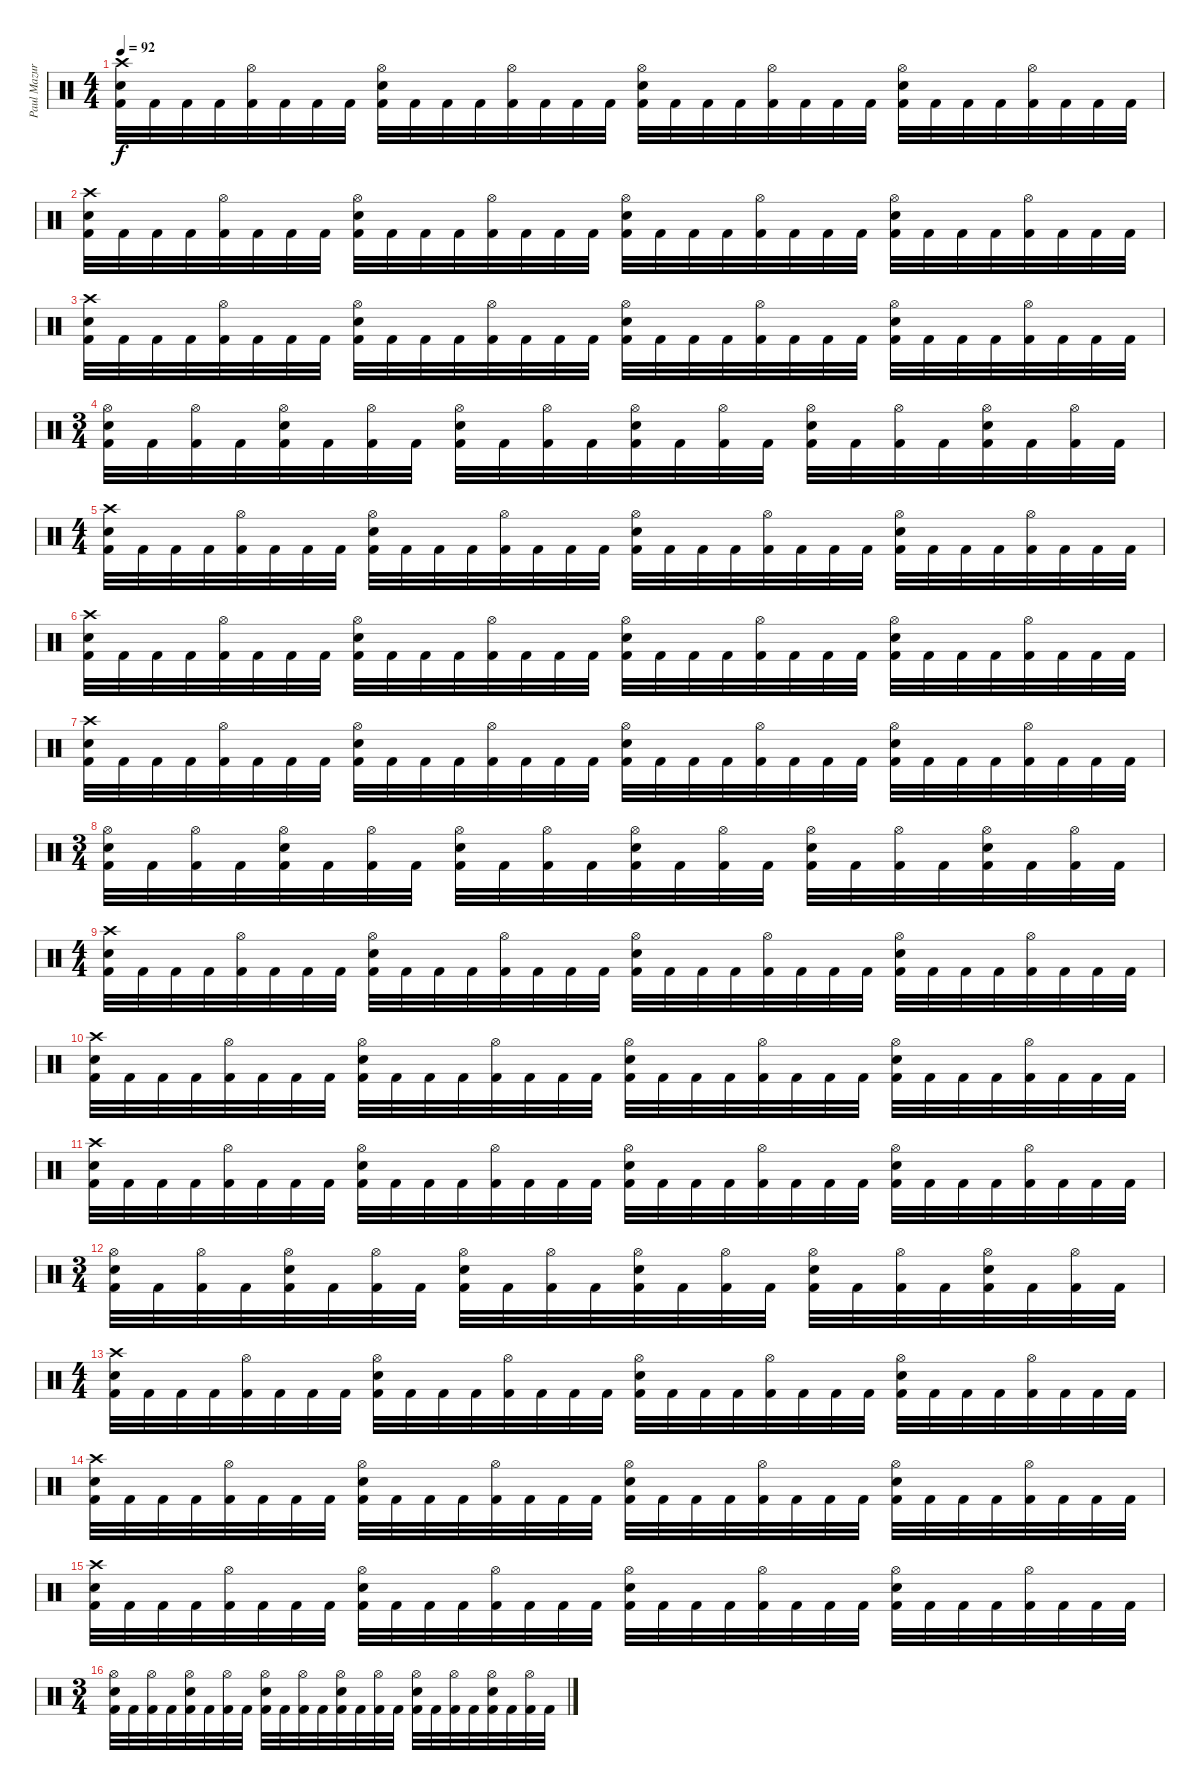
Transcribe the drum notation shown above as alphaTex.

\track ("Paul Mazurkiewicz" "Paul Mazur") {instrument percussion}
\staff {score}
\articulation defaults
\ts (4 4)
\tempo 92
\clef neutral
\ks c
("Crash high (hit)" "Electric Snare (hit)" "Kick (hit) 2").32{dy f} "Kick (hit) 2".32 "Kick (hit) 2".32 "Kick (hit) 2".32 ("Hi-Hat (open)" "Kick (hit) 2").32 "Kick (hit) 2".32 "Kick (hit) 2".32 "Kick (hit) 2".32 ("Hi-Hat (open)" "Electric Snare (hit)" "Kick (hit) 2").32 "Kick (hit) 2".32 "Kick (hit) 2".32 "Kick (hit) 2".32 ("Hi-Hat (open)" "Kick (hit) 2").32 "Kick (hit) 2".32 "Kick (hit) 2".32 "Kick (hit) 2".32 ("Hi-Hat (open)" "Electric Snare (hit)" "Kick (hit) 2").32 "Kick (hit) 2".32 "Kick (hit) 2".32 "Kick (hit) 2".32 ("Hi-Hat (open)" "Kick (hit) 2").32 "Kick (hit) 2".32 "Kick (hit) 2".32 "Kick (hit) 2".32 ("Hi-Hat (open)" "Electric Snare (hit)" "Kick (hit) 2").32 "Kick (hit) 2".32 "Kick (hit) 2".32 "Kick (hit) 2".32 ("Hi-Hat (open)" "Kick (hit) 2").32 "Kick (hit) 2".32 "Kick (hit) 2".32 "Kick (hit) 2".32 |
("Crash high (hit)" "Electric Snare (hit)" "Kick (hit) 2").32 "Kick (hit) 2".32 "Kick (hit) 2".32 "Kick (hit) 2".32 ("Hi-Hat (open)" "Kick (hit) 2").32 "Kick (hit) 2".32 "Kick (hit) 2".32 "Kick (hit) 2".32 ("Hi-Hat (open)" "Electric Snare (hit)" "Kick (hit) 2").32 "Kick (hit) 2".32 "Kick (hit) 2".32 "Kick (hit) 2".32 ("Hi-Hat (open)" "Kick (hit) 2").32 "Kick (hit) 2".32 "Kick (hit) 2".32 "Kick (hit) 2".32 ("Hi-Hat (open)" "Electric Snare (hit)" "Kick (hit) 2").32 "Kick (hit) 2".32 "Kick (hit) 2".32 "Kick (hit) 2".32 ("Hi-Hat (open)" "Kick (hit) 2").32 "Kick (hit) 2".32 "Kick (hit) 2".32 "Kick (hit) 2".32 ("Hi-Hat (open)" "Electric Snare (hit)" "Kick (hit) 2").32 "Kick (hit) 2".32 "Kick (hit) 2".32 "Kick (hit) 2".32 ("Hi-Hat (open)" "Kick (hit) 2").32 "Kick (hit) 2".32 "Kick (hit) 2".32 "Kick (hit) 2".32 |
("Crash high (hit)" "Electric Snare (hit)" "Kick (hit) 2").32 "Kick (hit) 2".32 "Kick (hit) 2".32 "Kick (hit) 2".32 ("Hi-Hat (open)" "Kick (hit) 2").32 "Kick (hit) 2".32 "Kick (hit) 2".32 "Kick (hit) 2".32 ("Hi-Hat (open)" "Electric Snare (hit)" "Kick (hit) 2").32 "Kick (hit) 2".32 "Kick (hit) 2".32 "Kick (hit) 2".32 ("Hi-Hat (open)" "Kick (hit) 2").32 "Kick (hit) 2".32 "Kick (hit) 2".32 "Kick (hit) 2".32 ("Hi-Hat (open)" "Electric Snare (hit)" "Kick (hit) 2").32 "Kick (hit) 2".32 "Kick (hit) 2".32 "Kick (hit) 2".32 ("Hi-Hat (open)" "Kick (hit) 2").32 "Kick (hit) 2".32 "Kick (hit) 2".32 "Kick (hit) 2".32 ("Hi-Hat (open)" "Electric Snare (hit)" "Kick (hit) 2").32 "Kick (hit) 2".32 "Kick (hit) 2".32 "Kick (hit) 2".32 ("Hi-Hat (open)" "Kick (hit) 2").32 "Kick (hit) 2".32 "Kick (hit) 2".32 "Kick (hit) 2".32 |
\ts (3 4)
("Hi-Hat (open)" "Electric Snare (hit)" "Kick (hit) 2").32 "Kick (hit) 2".32 ("Hi-Hat (open)" "Kick (hit) 2").32 "Kick (hit) 2".32 ("Hi-Hat (open)" "Electric Snare (hit)" "Kick (hit) 2").32 "Kick (hit) 2".32 ("Hi-Hat (open)" "Kick (hit) 2").32 "Kick (hit) 2".32 ("Hi-Hat (open)" "Electric Snare (hit)" "Kick (hit) 2").32 "Kick (hit) 2".32 ("Hi-Hat (open)" "Kick (hit) 2").32 "Kick (hit) 2".32 ("Hi-Hat (open)" "Electric Snare (hit)" "Kick (hit) 2").32 "Kick (hit) 2".32 ("Hi-Hat (open)" "Kick (hit) 2").32 "Kick (hit) 2".32 ("Hi-Hat (open)" "Electric Snare (hit)" "Kick (hit) 2").32 "Kick (hit) 2".32 ("Hi-Hat (open)" "Kick (hit) 2").32 "Kick (hit) 2".32 ("Hi-Hat (open)" "Electric Snare (hit)" "Kick (hit) 2").32 "Kick (hit) 2".32 ("Hi-Hat (open)" "Kick (hit) 2").32 "Kick (hit) 2".32 |
\ts (4 4)
("Crash high (hit)" "Electric Snare (hit)" "Kick (hit) 2").32 "Kick (hit) 2".32 "Kick (hit) 2".32 "Kick (hit) 2".32 ("Hi-Hat (open)" "Kick (hit) 2").32 "Kick (hit) 2".32 "Kick (hit) 2".32 "Kick (hit) 2".32 ("Hi-Hat (open)" "Electric Snare (hit)" "Kick (hit) 2").32 "Kick (hit) 2".32 "Kick (hit) 2".32 "Kick (hit) 2".32 ("Hi-Hat (open)" "Kick (hit) 2").32 "Kick (hit) 2".32 "Kick (hit) 2".32 "Kick (hit) 2".32 ("Hi-Hat (open)" "Electric Snare (hit)" "Kick (hit) 2").32 "Kick (hit) 2".32 "Kick (hit) 2".32 "Kick (hit) 2".32 ("Hi-Hat (open)" "Kick (hit) 2").32 "Kick (hit) 2".32 "Kick (hit) 2".32 "Kick (hit) 2".32 ("Hi-Hat (open)" "Electric Snare (hit)" "Kick (hit) 2").32 "Kick (hit) 2".32 "Kick (hit) 2".32 "Kick (hit) 2".32 ("Hi-Hat (open)" "Kick (hit) 2").32 "Kick (hit) 2".32 "Kick (hit) 2".32 "Kick (hit) 2".32 |
("Crash high (hit)" "Electric Snare (hit)" "Kick (hit) 2").32 "Kick (hit) 2".32 "Kick (hit) 2".32 "Kick (hit) 2".32 ("Hi-Hat (open)" "Kick (hit) 2").32 "Kick (hit) 2".32 "Kick (hit) 2".32 "Kick (hit) 2".32 ("Hi-Hat (open)" "Electric Snare (hit)" "Kick (hit) 2").32 "Kick (hit) 2".32 "Kick (hit) 2".32 "Kick (hit) 2".32 ("Hi-Hat (open)" "Kick (hit) 2").32 "Kick (hit) 2".32 "Kick (hit) 2".32 "Kick (hit) 2".32 ("Hi-Hat (open)" "Electric Snare (hit)" "Kick (hit) 2").32 "Kick (hit) 2".32 "Kick (hit) 2".32 "Kick (hit) 2".32 ("Hi-Hat (open)" "Kick (hit) 2").32 "Kick (hit) 2".32 "Kick (hit) 2".32 "Kick (hit) 2".32 ("Hi-Hat (open)" "Electric Snare (hit)" "Kick (hit) 2").32 "Kick (hit) 2".32 "Kick (hit) 2".32 "Kick (hit) 2".32 ("Hi-Hat (open)" "Kick (hit) 2").32 "Kick (hit) 2".32 "Kick (hit) 2".32 "Kick (hit) 2".32 |
("Crash high (hit)" "Electric Snare (hit)" "Kick (hit) 2").32 "Kick (hit) 2".32 "Kick (hit) 2".32 "Kick (hit) 2".32 ("Hi-Hat (open)" "Kick (hit) 2").32 "Kick (hit) 2".32 "Kick (hit) 2".32 "Kick (hit) 2".32 ("Hi-Hat (open)" "Electric Snare (hit)" "Kick (hit) 2").32 "Kick (hit) 2".32 "Kick (hit) 2".32 "Kick (hit) 2".32 ("Hi-Hat (open)" "Kick (hit) 2").32 "Kick (hit) 2".32 "Kick (hit) 2".32 "Kick (hit) 2".32 ("Hi-Hat (open)" "Electric Snare (hit)" "Kick (hit) 2").32 "Kick (hit) 2".32 "Kick (hit) 2".32 "Kick (hit) 2".32 ("Hi-Hat (open)" "Kick (hit) 2").32 "Kick (hit) 2".32 "Kick (hit) 2".32 "Kick (hit) 2".32 ("Hi-Hat (open)" "Electric Snare (hit)" "Kick (hit) 2").32 "Kick (hit) 2".32 "Kick (hit) 2".32 "Kick (hit) 2".32 ("Hi-Hat (open)" "Kick (hit) 2").32 "Kick (hit) 2".32 "Kick (hit) 2".32 "Kick (hit) 2".32 |
\ts (3 4)
("Hi-Hat (open)" "Electric Snare (hit)" "Kick (hit) 2").32 "Kick (hit) 2".32 ("Hi-Hat (open)" "Kick (hit) 2").32 "Kick (hit) 2".32 ("Hi-Hat (open)" "Electric Snare (hit)" "Kick (hit) 2").32 "Kick (hit) 2".32 ("Hi-Hat (open)" "Kick (hit) 2").32 "Kick (hit) 2".32 ("Hi-Hat (open)" "Electric Snare (hit)" "Kick (hit) 2").32 "Kick (hit) 2".32 ("Hi-Hat (open)" "Kick (hit) 2").32 "Kick (hit) 2".32 ("Hi-Hat (open)" "Electric Snare (hit)" "Kick (hit) 2").32 "Kick (hit) 2".32 ("Hi-Hat (open)" "Kick (hit) 2").32 "Kick (hit) 2".32 ("Hi-Hat (open)" "Electric Snare (hit)" "Kick (hit) 2").32 "Kick (hit) 2".32 ("Hi-Hat (open)" "Kick (hit) 2").32 "Kick (hit) 2".32 ("Hi-Hat (open)" "Electric Snare (hit)" "Kick (hit) 2").32 "Kick (hit) 2".32 ("Hi-Hat (open)" "Kick (hit) 2").32 "Kick (hit) 2".32 |
\ts (4 4)
("Crash high (hit)" "Electric Snare (hit)" "Kick (hit) 2").32 "Kick (hit) 2".32 "Kick (hit) 2".32 "Kick (hit) 2".32 ("Hi-Hat (open)" "Kick (hit) 2").32 "Kick (hit) 2".32 "Kick (hit) 2".32 "Kick (hit) 2".32 ("Hi-Hat (open)" "Electric Snare (hit)" "Kick (hit) 2").32 "Kick (hit) 2".32 "Kick (hit) 2".32 "Kick (hit) 2".32 ("Hi-Hat (open)" "Kick (hit) 2").32 "Kick (hit) 2".32 "Kick (hit) 2".32 "Kick (hit) 2".32 ("Hi-Hat (open)" "Electric Snare (hit)" "Kick (hit) 2").32 "Kick (hit) 2".32 "Kick (hit) 2".32 "Kick (hit) 2".32 ("Hi-Hat (open)" "Kick (hit) 2").32 "Kick (hit) 2".32 "Kick (hit) 2".32 "Kick (hit) 2".32 ("Hi-Hat (open)" "Electric Snare (hit)" "Kick (hit) 2").32 "Kick (hit) 2".32 "Kick (hit) 2".32 "Kick (hit) 2".32 ("Hi-Hat (open)" "Kick (hit) 2").32 "Kick (hit) 2".32 "Kick (hit) 2".32 "Kick (hit) 2".32 |
("Crash high (hit)" "Electric Snare (hit)" "Kick (hit) 2").32 "Kick (hit) 2".32 "Kick (hit) 2".32 "Kick (hit) 2".32 ("Hi-Hat (open)" "Kick (hit) 2").32 "Kick (hit) 2".32 "Kick (hit) 2".32 "Kick (hit) 2".32 ("Hi-Hat (open)" "Electric Snare (hit)" "Kick (hit) 2").32 "Kick (hit) 2".32 "Kick (hit) 2".32 "Kick (hit) 2".32 ("Hi-Hat (open)" "Kick (hit) 2").32 "Kick (hit) 2".32 "Kick (hit) 2".32 "Kick (hit) 2".32 ("Hi-Hat (open)" "Electric Snare (hit)" "Kick (hit) 2").32 "Kick (hit) 2".32 "Kick (hit) 2".32 "Kick (hit) 2".32 ("Hi-Hat (open)" "Kick (hit) 2").32 "Kick (hit) 2".32 "Kick (hit) 2".32 "Kick (hit) 2".32 ("Hi-Hat (open)" "Electric Snare (hit)" "Kick (hit) 2").32 "Kick (hit) 2".32 "Kick (hit) 2".32 "Kick (hit) 2".32 ("Hi-Hat (open)" "Kick (hit) 2").32 "Kick (hit) 2".32 "Kick (hit) 2".32 "Kick (hit) 2".32 |
("Crash high (hit)" "Electric Snare (hit)" "Kick (hit) 2").32 "Kick (hit) 2".32 "Kick (hit) 2".32 "Kick (hit) 2".32 ("Hi-Hat (open)" "Kick (hit) 2").32 "Kick (hit) 2".32 "Kick (hit) 2".32 "Kick (hit) 2".32 ("Hi-Hat (open)" "Electric Snare (hit)" "Kick (hit) 2").32 "Kick (hit) 2".32 "Kick (hit) 2".32 "Kick (hit) 2".32 ("Hi-Hat (open)" "Kick (hit) 2").32 "Kick (hit) 2".32 "Kick (hit) 2".32 "Kick (hit) 2".32 ("Hi-Hat (open)" "Electric Snare (hit)" "Kick (hit) 2").32 "Kick (hit) 2".32 "Kick (hit) 2".32 "Kick (hit) 2".32 ("Hi-Hat (open)" "Kick (hit) 2").32 "Kick (hit) 2".32 "Kick (hit) 2".32 "Kick (hit) 2".32 ("Hi-Hat (open)" "Electric Snare (hit)" "Kick (hit) 2").32 "Kick (hit) 2".32 "Kick (hit) 2".32 "Kick (hit) 2".32 ("Hi-Hat (open)" "Kick (hit) 2").32 "Kick (hit) 2".32 "Kick (hit) 2".32 "Kick (hit) 2".32 |
\ts (3 4)
("Hi-Hat (open)" "Electric Snare (hit)" "Kick (hit) 2").32 "Kick (hit) 2".32 ("Hi-Hat (open)" "Kick (hit) 2").32 "Kick (hit) 2".32 ("Hi-Hat (open)" "Electric Snare (hit)" "Kick (hit) 2").32 "Kick (hit) 2".32 ("Hi-Hat (open)" "Kick (hit) 2").32 "Kick (hit) 2".32 ("Hi-Hat (open)" "Electric Snare (hit)" "Kick (hit) 2").32 "Kick (hit) 2".32 ("Hi-Hat (open)" "Kick (hit) 2").32 "Kick (hit) 2".32 ("Hi-Hat (open)" "Electric Snare (hit)" "Kick (hit) 2").32 "Kick (hit) 2".32 ("Hi-Hat (open)" "Kick (hit) 2").32 "Kick (hit) 2".32 ("Hi-Hat (open)" "Electric Snare (hit)" "Kick (hit) 2").32 "Kick (hit) 2".32 ("Hi-Hat (open)" "Kick (hit) 2").32 "Kick (hit) 2".32 ("Hi-Hat (open)" "Electric Snare (hit)" "Kick (hit) 2").32 "Kick (hit) 2".32 ("Hi-Hat (open)" "Kick (hit) 2").32 "Kick (hit) 2".32 |
\ts (4 4)
("Crash high (hit)" "Electric Snare (hit)" "Kick (hit) 2").32 "Kick (hit) 2".32 "Kick (hit) 2".32 "Kick (hit) 2".32 ("Hi-Hat (open)" "Kick (hit) 2").32 "Kick (hit) 2".32 "Kick (hit) 2".32 "Kick (hit) 2".32 ("Hi-Hat (open)" "Electric Snare (hit)" "Kick (hit) 2").32 "Kick (hit) 2".32 "Kick (hit) 2".32 "Kick (hit) 2".32 ("Hi-Hat (open)" "Kick (hit) 2").32 "Kick (hit) 2".32 "Kick (hit) 2".32 "Kick (hit) 2".32 ("Hi-Hat (open)" "Electric Snare (hit)" "Kick (hit) 2").32 "Kick (hit) 2".32 "Kick (hit) 2".32 "Kick (hit) 2".32 ("Hi-Hat (open)" "Kick (hit) 2").32 "Kick (hit) 2".32 "Kick (hit) 2".32 "Kick (hit) 2".32 ("Hi-Hat (open)" "Electric Snare (hit)" "Kick (hit) 2").32 "Kick (hit) 2".32 "Kick (hit) 2".32 "Kick (hit) 2".32 ("Hi-Hat (open)" "Kick (hit) 2").32 "Kick (hit) 2".32 "Kick (hit) 2".32 "Kick (hit) 2".32 |
("Crash high (hit)" "Electric Snare (hit)" "Kick (hit) 2").32 "Kick (hit) 2".32 "Kick (hit) 2".32 "Kick (hit) 2".32 ("Hi-Hat (open)" "Kick (hit) 2").32 "Kick (hit) 2".32 "Kick (hit) 2".32 "Kick (hit) 2".32 ("Hi-Hat (open)" "Electric Snare (hit)" "Kick (hit) 2").32 "Kick (hit) 2".32 "Kick (hit) 2".32 "Kick (hit) 2".32 ("Hi-Hat (open)" "Kick (hit) 2").32 "Kick (hit) 2".32 "Kick (hit) 2".32 "Kick (hit) 2".32 ("Hi-Hat (open)" "Electric Snare (hit)" "Kick (hit) 2").32 "Kick (hit) 2".32 "Kick (hit) 2".32 "Kick (hit) 2".32 ("Hi-Hat (open)" "Kick (hit) 2").32 "Kick (hit) 2".32 "Kick (hit) 2".32 "Kick (hit) 2".32 ("Hi-Hat (open)" "Electric Snare (hit)" "Kick (hit) 2").32 "Kick (hit) 2".32 "Kick (hit) 2".32 "Kick (hit) 2".32 ("Hi-Hat (open)" "Kick (hit) 2").32 "Kick (hit) 2".32 "Kick (hit) 2".32 "Kick (hit) 2".32 |
("Crash high (hit)" "Electric Snare (hit)" "Kick (hit) 2").32 "Kick (hit) 2".32 "Kick (hit) 2".32 "Kick (hit) 2".32 ("Hi-Hat (open)" "Kick (hit) 2").32 "Kick (hit) 2".32 "Kick (hit) 2".32 "Kick (hit) 2".32 ("Hi-Hat (open)" "Electric Snare (hit)" "Kick (hit) 2").32 "Kick (hit) 2".32 "Kick (hit) 2".32 "Kick (hit) 2".32 ("Hi-Hat (open)" "Kick (hit) 2").32 "Kick (hit) 2".32 "Kick (hit) 2".32 "Kick (hit) 2".32 ("Hi-Hat (open)" "Electric Snare (hit)" "Kick (hit) 2").32 "Kick (hit) 2".32 "Kick (hit) 2".32 "Kick (hit) 2".32 ("Hi-Hat (open)" "Kick (hit) 2").32 "Kick (hit) 2".32 "Kick (hit) 2".32 "Kick (hit) 2".32 ("Hi-Hat (open)" "Electric Snare (hit)" "Kick (hit) 2").32 "Kick (hit) 2".32 "Kick (hit) 2".32 "Kick (hit) 2".32 ("Hi-Hat (open)" "Kick (hit) 2").32 "Kick (hit) 2".32 "Kick (hit) 2".32 "Kick (hit) 2".32 |
\ts (3 4)
("Hi-Hat (open)" "Electric Snare (hit)" "Kick (hit) 2").32 "Kick (hit) 2".32 ("Hi-Hat (open)" "Kick (hit) 2").32 "Kick (hit) 2".32 ("Hi-Hat (open)" "Electric Snare (hit)" "Kick (hit) 2").32 "Kick (hit) 2".32 ("Hi-Hat (open)" "Kick (hit) 2").32 "Kick (hit) 2".32 ("Hi-Hat (open)" "Electric Snare (hit)" "Kick (hit) 2").32 "Kick (hit) 2".32 ("Hi-Hat (open)" "Kick (hit) 2").32 "Kick (hit) 2".32 ("Hi-Hat (open)" "Electric Snare (hit)" "Kick (hit) 2").32 "Kick (hit) 2".32 ("Hi-Hat (open)" "Kick (hit) 2").32 "Kick (hit) 2".32 ("Hi-Hat (open)" "Electric Snare (hit)" "Kick (hit) 2").32 "Kick (hit) 2".32 ("Hi-Hat (open)" "Kick (hit) 2").32 "Kick (hit) 2".32 ("Hi-Hat (open)" "Electric Snare (hit)" "Kick (hit) 2").32 "Kick (hit) 2".32 ("Hi-Hat (open)" "Kick (hit) 2").32 "Kick (hit) 2".32
